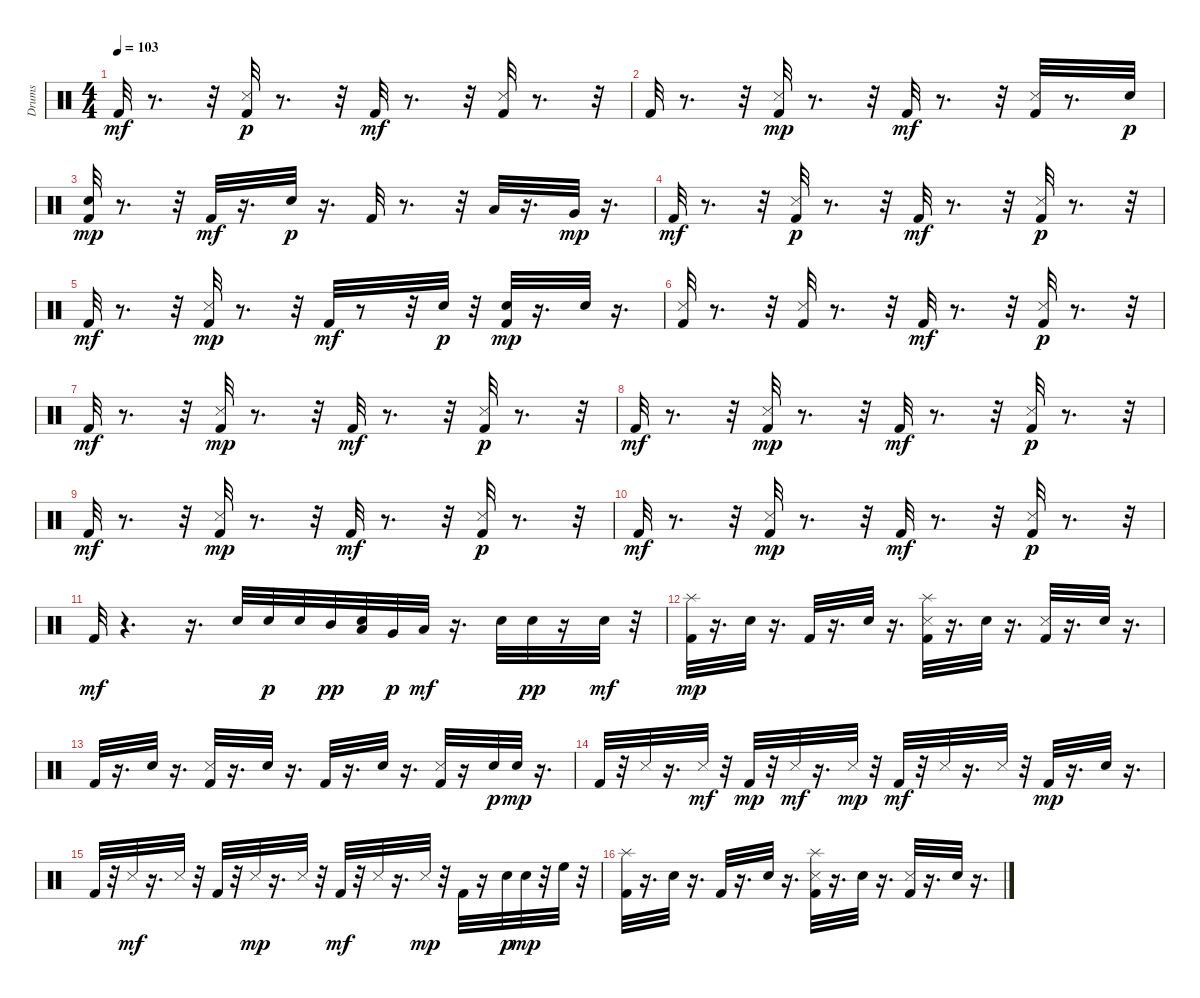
\track ("Drums" "Drums") {instrument percussion}
\staff {score}
\articulation defaults
\ts (4 4)
\tempo 103
\clef neutral
\ks c "Kick (hit) 2".32{dy mf}
r.8{d} r.32 ("Kick (hit) 2" "Snare (side stick) 3").32{dy p} r.8{d} r.32 "Kick (hit) 2".32{dy mf} r.8{d} r.32 ("Kick (hit) 2" "Snare (side stick) 3").32 r.8{d} r.32 |
"Kick (hit) 2".32 r.8{d} r.32 ("Kick (hit) 2" "Snare (side stick) 3").32{dy mp} r.8{d} r.32 "Kick (hit) 2".32{dy mf} r.8{d} r.32 ("Kick (hit) 2" "Snare (side stick) 3").32 r.8{d} "Electric Snare (hit)".32{dy p} |
("Kick (hit) 2" "Electric Snare (hit)").32{dy mp} r.8{d} r.32 "Kick (hit) 2".32{dy mf} r.16{d} "Electric Snare (hit)".32{dy p} r.16{d} "Kick (hit) 2".32 r.8{d} r.32 "Low Tom (hit)".32 r.16{d} "Very Low Tom (hit)".32{dy mp} r.16{d} |
"Kick (hit) 2".32{dy mf} r.8{d} r.32 ("Kick (hit) 2" "Snare (side stick) 3").32{dy p} r.8{d} r.32 "Kick (hit) 2".32{dy mf} r.8{d} r.32 ("Kick (hit) 2" "Snare (side stick) 3").32{dy p} r.8{d} r.32 |
"Kick (hit) 2".32{dy mf} r.8{d} r.32 ("Kick (hit) 2" "Snare (side stick) 3").32{dy mp} r.8{d} r.32 "Kick (hit) 2".32{dy mf} r.8 r.32 "Electric Snare (hit)".32{dy p} r.32 ("Kick (hit) 2" "Electric Snare (hit)").32{dy mp} r.16{d} "Electric Snare (hit)".32 r.16{d} |
("Kick (hit) 2" "Snare (side stick) 3").32 r.8{d} r.32 ("Kick (hit) 2" "Snare (side stick) 3").32 r.8{d} r.32 "Kick (hit) 2".32{dy mf} r.8{d} r.32 ("Kick (hit) 2" "Snare (side stick) 3").32{dy p} r.8{d} r.32 |
"Kick (hit) 2".32{dy mf} r.8{d} r.32 ("Kick (hit) 2" "Snare (side stick) 3").32{dy mp} r.8{d} r.32 "Kick (hit) 2".32{dy mf} r.8{d} r.32 ("Kick (hit) 2" "Snare (side stick) 3").32{dy p} r.8{d} r.32 |
"Kick (hit) 2".32{dy mf} r.8{d} r.32 ("Kick (hit) 2" "Snare (side stick) 3").32{dy mp} r.8{d} r.32 "Kick (hit) 2".32{dy mf} r.8{d} r.32 ("Kick (hit) 2" "Snare (side stick) 3").32{dy p} r.8{d} r.32 |
"Kick (hit) 2".32{dy mf} r.8{d} r.32 ("Kick (hit) 2" "Snare (side stick) 3").32{dy mp} r.8{d} r.32 "Kick (hit) 2".32{dy mf} r.8{d} r.32 ("Kick (hit) 2" "Snare (side stick) 3").32{dy p} r.8{d} r.32 |
"Kick (hit) 2".32{dy mf} r.8{d} r.32 ("Kick (hit) 2" "Snare (side stick) 3").32{dy mp} r.8{d} r.32 "Kick (hit) 2".32{dy mf} r.8{d} r.32 ("Kick (hit) 2" "Snare (side stick) 3").32{dy p} r.8{d} r.32 |
"Kick (hit) 2".32{dy mf} r.4{d} r.16{d} "Electric Snare (hit)".32 "Electric Snare (hit)".32{dy p} "Electric Snare (hit)".32 "Mid Tom (hit)".32{dy pp} ("Electric Snare (hit)" "Low Tom (hit)").32 "Very Low Tom (hit)".32{dy p} "Low Floor Tom (hit)".32{dy mf} r.16{d} "Electric Snare (hit)".32 "Electric Snare (hit)".32{dy pp} r.16 "Electric Snare (hit)".32{dy mf} r.32 |
("Kick (hit) 2" "Splash (hit)").32{dy mp} r.16{d} "Electric Snare (hit)".32 r.16{d} "Kick (hit) 2".32 r.16{d} "Electric Snare (hit)".32 r.16{d} ("Kick (hit) 2" "Splash (hit)" "Snare (side stick) 3").32 r.16{d} "Electric Snare (hit)".32 r.16{d} ("Kick (hit) 2" "Snare (side stick) 3").32 r.16{d} "Electric Snare (hit)".32 r.16{d} |
"Kick (hit) 2".32 r.16{d} "Electric Snare (hit)".32 r.16{d} ("Kick (hit) 2" "Snare (side stick) 3").32 r.16{d} "Electric Snare (hit)".32 r.16{d} "Kick (hit) 2".32 r.16{d} "Electric Snare (hit)".32 r.16{d} ("Kick (hit) 2" "Snare (side stick) 3").32 r.16 "Electric Snare (hit)".32{dy p} "Electric Snare (hit)".32{dy mp} r.16{d} |
"Kick (hit) 2".32 r.32 "Snare (side stick) 3".32 r.16{d} "Snare (side stick) 3".32{dy mf} r.32 "Kick (hit) 2".32{dy mp} r.32 "Snare (side stick) 3".32{dy mf} r.16{d} "Snare (side stick) 3".32{dy mp} r.32 "Kick (hit) 2".32{dy mf} r.32 "Snare (side stick) 3".32 r.16{d} "Snare (side stick) 3".32 r.32 "Kick (hit) 2".32{dy mp} r.16{d} "Electric Snare (hit)".32 r.16{d} |
"Kick (hit) 2".32 r.32 "Snare (side stick) 3".32{dy mf} r.16{d} "Snare (side stick) 3".32 r.32 "Kick (hit) 2".32 r.32 "Snare (side stick) 3".32{dy mp} r.16{d} "Snare (side stick) 3".32 r.32 "Kick (hit) 2".32{dy mf} r.32 "Snare (side stick) 3".32 r.16{d} "Snare (side stick) 3".32{dy mp} r.32 "Kick (hit) 2".32 r.16 "Electric Snare (hit)".32{dy p} "Electric Snare (hit)".32{dy mp} r.32 "High Floor Tom (hit)".32 r.32 |
("Kick (hit) 2" "Splash (hit)").32 r.16{d} "Electric Snare (hit)".32 r.16{d} "Kick (hit) 2".32 r.16{d} "Electric Snare (hit)".32 r.16{d} ("Kick (hit) 2" "Splash (hit)" "Snare (side stick) 3").32 r.16{d} "Electric Snare (hit)".32 r.16{d} ("Kick (hit) 2" "Snare (side stick) 3").32 r.16{d} "Electric Snare (hit)".32 r.16{d}
